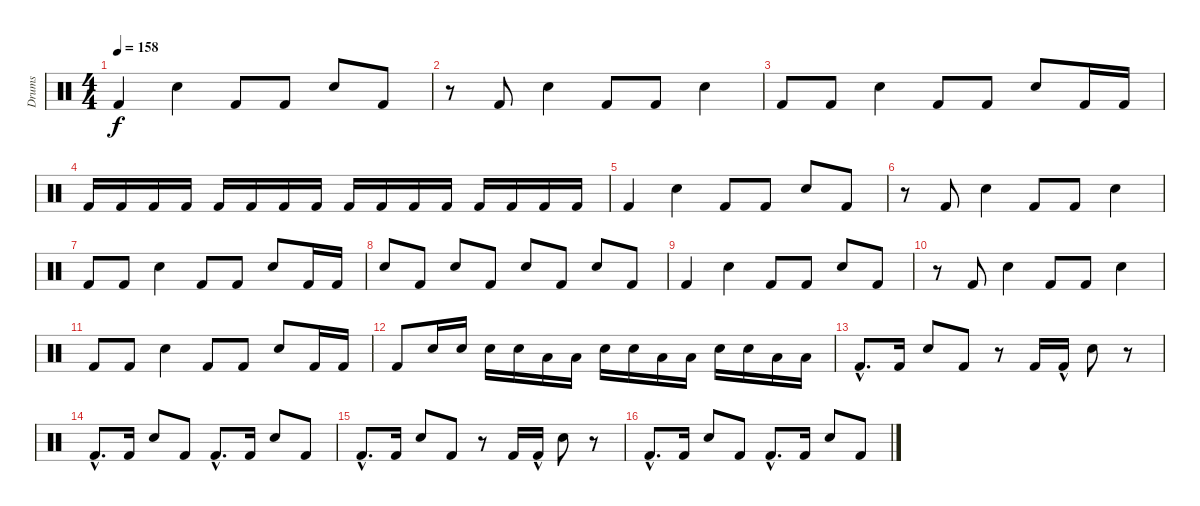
\track ("Drums" "Drums") {instrument percussion}
\staff {score}
\articulation defaults
\ts (4 4)
\tempo 158
\clef neutral
\ks c "Kick (hit) 2".4{dy f} "Snare (hit) 2".4 "Kick (hit) 2".8 "Kick (hit) 2".8 "Snare (hit) 2".8 "Kick (hit) 2".8
|
r.8 "Kick (hit) 2".8 "Snare (hit) 2".4 "Kick (hit) 2".8 "Kick (hit) 2".8 "Snare (hit) 2".4 |
"Kick (hit) 2".8 "Kick (hit) 2".8 "Snare (hit) 2".4 "Kick (hit) 2".8 "Kick (hit) 2".8 "Snare (hit) 2".8 "Kick (hit) 2".16 "Kick (hit) 2".16 |
"Kick (hit) 2".16 "Kick (hit) 2".16 "Kick (hit) 2".16 "Kick (hit) 2".16 "Kick (hit) 2".16 "Kick (hit) 2".16 "Kick (hit) 2".16 "Kick (hit) 2".16 "Kick (hit) 2".16 "Kick (hit) 2".16 "Kick (hit) 2".16 "Kick (hit) 2".16 "Kick (hit) 2".16 "Kick (hit) 2".16 "Kick (hit) 2".16 "Kick (hit) 2".16 |
"Kick (hit) 2".4 "Snare (hit) 2".4 "Kick (hit) 2".8 "Kick (hit) 2".8 "Snare (hit) 2".8 "Kick (hit) 2".8 |
r.8 "Kick (hit) 2".8 "Snare (hit) 2".4 "Kick (hit) 2".8 "Kick (hit) 2".8 "Snare (hit) 2".4 |
"Kick (hit) 2".8 "Kick (hit) 2".8 "Snare (hit) 2".4 "Kick (hit) 2".8 "Kick (hit) 2".8 "Snare (hit) 2".8 "Kick (hit) 2".16 "Kick (hit) 2".16 |
"Snare (hit) 2".8 "Kick (hit) 2".8 "Snare (hit) 2".8 "Kick (hit) 2".8 "Snare (hit) 2".8 "Kick (hit) 2".8 "Snare (hit) 2".8 "Kick (hit) 2".8 |
"Kick (hit) 2".4 "Snare (hit) 2".4 "Kick (hit) 2".8 "Kick (hit) 2".8 "Snare (hit) 2".8 "Kick (hit) 2".8 |
r.8 "Kick (hit) 2".8 "Snare (hit) 2".4 "Kick (hit) 2".8 "Kick (hit) 2".8 "Snare (hit) 2".4 |
"Kick (hit) 2".8 "Kick (hit) 2".8 "Snare (hit) 2".4 "Kick (hit) 2".8 "Kick (hit) 2".8 "Snare (hit) 2".8 "Kick (hit) 2".16 "Kick (hit) 2".16 |
"Kick (hit) 2".8 "Snare (hit) 2".16 "Snare (hit) 2".16 "Snare (hit) 2".16 "Snare (hit) 2".16 "Low Tom (hit)".16 "Low Tom (hit)".16 "Snare (hit) 2".16 "Snare (hit) 2".16 "Low Tom (hit)".16 "Low Tom (hit)".16 "Snare (hit) 2".16 "Snare (hit) 2".16 "Low Tom (hit)".16 "Low Tom (hit)".16 |
"Kick (hit) 2"{hac}.8{d} "Kick (hit) 2".16 "Snare (hit) 2".8 "Kick (hit) 2".8 r.8 "Kick (hit) 2".16 "Kick (hit) 2"{hac}.16 "Snare (hit) 2".8 r.8 |
"Kick (hit) 2"{hac}.8{d} "Kick (hit) 2".16 "Snare (hit) 2".8 "Kick (hit) 2".8 "Kick (hit) 2"{hac}.8{d} "Kick (hit) 2".16 "Snare (hit) 2".8 "Kick (hit) 2".8 |
"Kick (hit) 2"{hac}.8{d} "Kick (hit) 2".16 "Snare (hit) 2".8 "Kick (hit) 2".8 r.8 "Kick (hit) 2".16 "Kick (hit) 2"{hac}.16 "Snare (hit) 2".8 r.8 |
"Kick (hit) 2"{hac}.8{d} "Kick (hit) 2".16 "Snare (hit) 2".8 "Kick (hit) 2".8 "Kick (hit) 2"{hac}.8{d} "Kick (hit) 2".16 "Snare (hit) 2".8 "Kick (hit) 2".8
